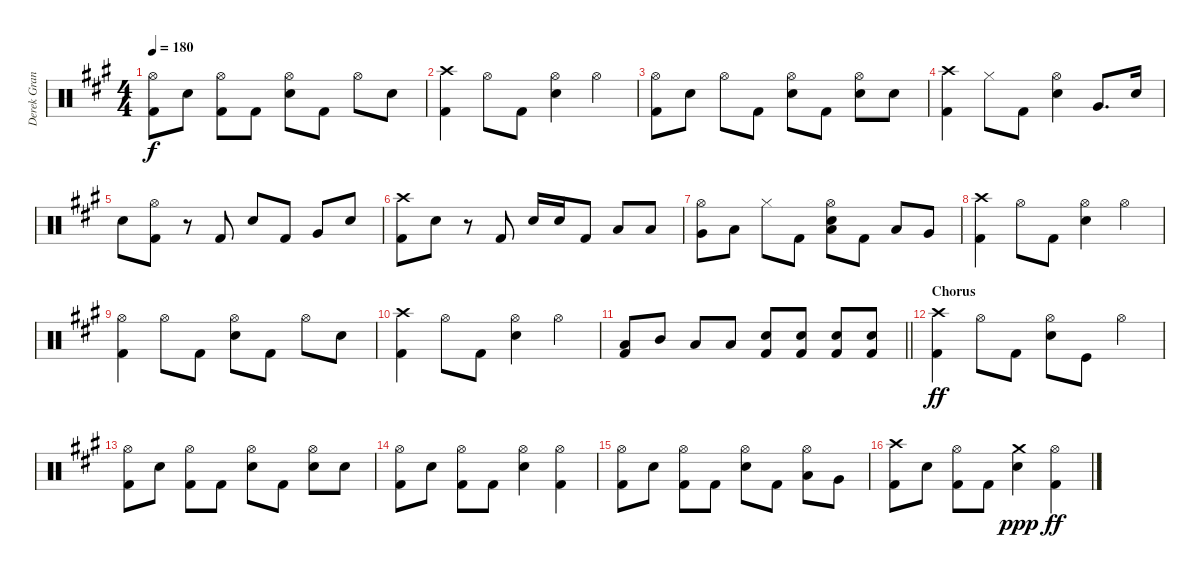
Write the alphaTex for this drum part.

\track ("Derek Grant - Drums" "Derek Gran") {instrument percussion}
\staff {score}
\articulation defaults
\ts (4 4)
\tempo 180
\clef neutral
\ks a
("Kick (hit) 2" "Hi-Hat (open)").8{dy f} "Snare (hit) 2".8 ("Kick (hit) 2" "Hi-Hat (open)").8 "Kick (hit) 2".8 ("Snare (hit) 2" "Hi-Hat (open)").8 "Kick (hit) 2".8 "Hi-Hat (open)".8 "Snare (hit) 2".8 |
("Crash high (hit)" "Kick (hit) 2").4 "Hi-Hat (open)".8 "Kick (hit) 2".8 ("Snare (hit) 2" "Hi-Hat (open)").4 "Hi-Hat (open)".4 |
("Kick (hit) 2" "Hi-Hat (open)").8 "Snare (hit) 2".8 "Hi-Hat (open)".8 "Kick (hit) 2".8 ("Snare (hit) 2" "Hi-Hat (open)").8 "Kick (hit) 2".8 ("Snare (hit) 2" "Hi-Hat (open)").8 "Snare (hit) 2".8 |
("Crash high (hit)" "Kick (hit) 2").4 "Hi-Hat (closed)".8 "Kick (hit) 2".8 ("Hi-Hat (open)" "Snare (hit) 2").4 "Very Low Tom (hit)".8{d} "Snare (hit) 2".16 |
"Snare (hit) 2".8 ("Kick (hit) 2" "Hi-Hat (open)").8 r.8 "Kick (hit) 2".8 "Snare (hit) 2".8 "Kick (hit) 2".8 "Very Low Tom (hit)".8 "Snare (hit) 2".8 |
("Crash high (hit)" "Kick (hit) 2").8 "Snare (hit) 2".8 r.8 "Kick (hit) 2".8 "Snare (hit) 2".16 "Snare (hit) 2".16 "Kick (hit) 2".8 "Low Tom (hit)".8 "Low Tom (hit)".8 |
("Hi-Hat (open)" "Very Low Tom (hit)").8 "Low Tom (hit)".8 "Hi-Hat (closed)".8 "Kick (hit) 2".8 ("Low Tom (hit)" "Snare (hit) 2" "Hi-Hat (open)").8 "Kick (hit) 2".8 "Low Tom (hit)".8 "Very Low Tom (hit)".8 |
("Crash high (hit)" "Kick (hit) 2").4 "Hi-Hat (open)".8 "Kick (hit) 2".8 ("Snare (hit) 2" "Hi-Hat (open)").4 "Hi-Hat (open)".4 |
("Kick (hit) 2" "Hi-Hat (open)").4 "Hi-Hat (open)".8 "Kick (hit) 2".8 ("Snare (hit) 2" "Hi-Hat (open)").8 "Kick (hit) 2".8 "Hi-Hat (open)".8 "Snare (hit) 2".8 |
("Crash high (hit)" "Kick (hit) 2").4 "Hi-Hat (open)".8 "Kick (hit) 2".8 ("Snare (hit) 2" "Hi-Hat (open)").4 "Hi-Hat (open)".4 |
\barLineRight lightlight
("Low Tom (hit)" "Kick (hit) 2").8 "Mid Tom (hit)".8 "Low Tom (hit)".8 "Low Tom (hit)".8 ("Kick (hit) 2" "Snare (hit) 2").8 ("Kick (hit) 2" "Snare (hit) 2").8 ("Kick (hit) 2" "Snare (hit) 2").8 ("Kick (hit) 2" "Snare (hit) 2").8 |
\section ("" "Chorus")
("Kick (hit) 2" "Crash high (hit)").4{dy ff volume 12} "Hi-Hat (open)".8 "Kick (hit) 2".8 ("Snare (hit) 2" "Hi-Hat (open)").8 "Kick (hit)".8 "Hi-Hat (open)".4 |
("Kick (hit) 2" "Hi-Hat (open)").8 "Snare (hit) 2".8 ("Kick (hit) 2" "Hi-Hat (open)").8 "Kick (hit) 2".8 ("Snare (hit) 2" "Hi-Hat (open)").8 "Kick (hit) 2".8 ("Snare (hit) 2" "Hi-Hat (open)").8 "Snare (hit) 2".8 |
("Kick (hit) 2" "Hi-Hat (open)").8 "Snare (hit) 2".8 ("Kick (hit) 2" "Hi-Hat (open)").8 "Kick (hit) 2".8 ("Snare (hit) 2" "Hi-Hat (open)").4 ("Kick (hit) 2" "Hi-Hat (open)").4 |
("Kick (hit) 2" "Hi-Hat (open)").8 "Snare (hit) 2".8 ("Kick (hit) 2" "Hi-Hat (open)").8 "Kick (hit) 2".8 ("Snare (hit) 2" "Hi-Hat (open)").8 "Kick (hit) 2".8 ("Low Tom (hit)" "Hi-Hat (open)").8 "Very Low Tom (hit)".8 |
("Kick (hit) 2" "Crash high (hit)").8 "Snare (hit) 2".8 ("Kick (hit) 2" "Hi-Hat (open)").8 "Kick (hit) 2".8 ("Snare (hit) 2" "Crash medium (hit)").4{dy ppp} ("Kick (hit) 2" "Hi-Hat (open)").4{dy ff}
